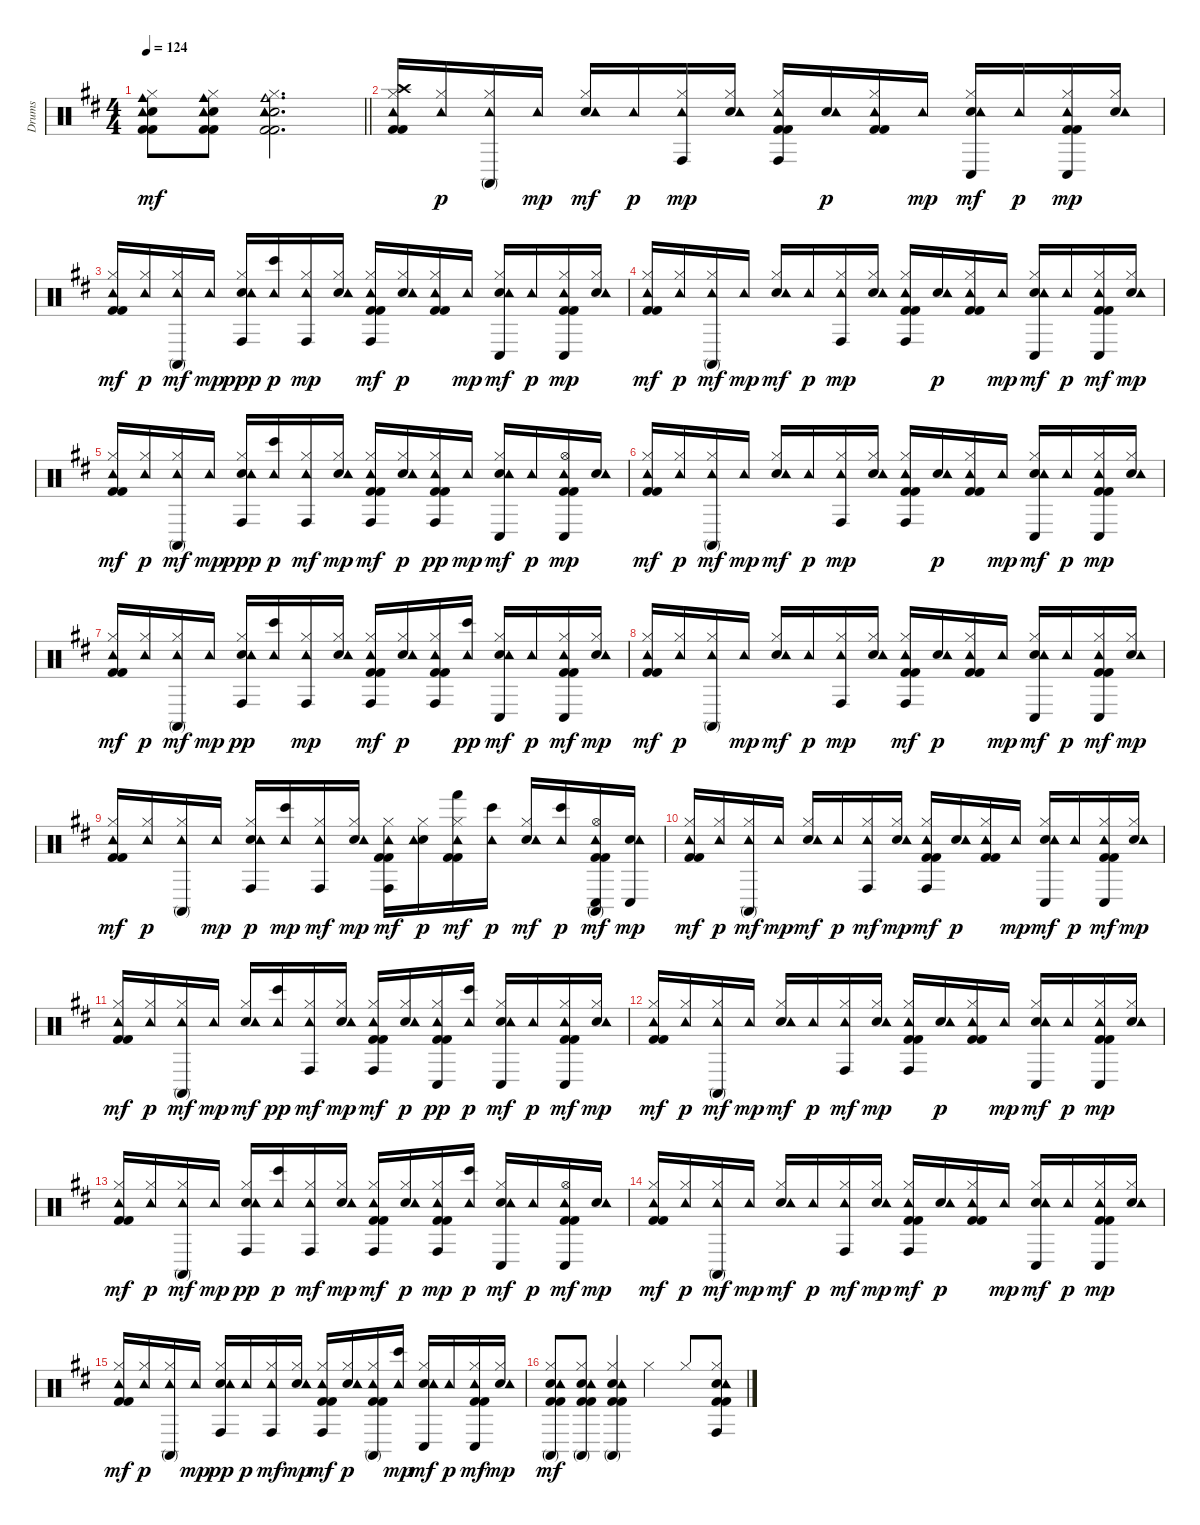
\track ("Drums" "Drums") {instrument percussion}
\staff {score}
\articulation defaults
\ts (4 4)
\tempo 124
\clef neutral
\barLineRight lightlight
\ks d
("Kick (hit) 2" "Kick (hit) 2" "Electric Snare (hit)" "Hi-Hat (closed)" "Tambourine (hit)" "Cowbell medium (hit)").8{dy mf} ("Kick (hit) 2" "Kick (hit) 2" "Electric Snare (hit)" "Hi-Hat (closed)" "Tambourine (hit)" "Cowbell medium (hit)").8 ("Kick (hit) 2" "Kick (hit) 2" "Electric Snare (hit)" "Hi-Hat (closed)" "Tambourine (hit)" "Cowbell medium (hit)").2{d} |
("Kick (hit) 2" "Kick (hit) 2" "Hi-Hat (closed)" "Crash high (hit)" "Tambourine (hit)").16 ("Hi-Hat (closed)" "Tambourine (hit)").16{dy p} ("Hi-Hat (closed)" "Tambourine (hit)" "Conga high (mute)").16 "Tambourine (hit)".16{dy mp} ("Electric Snare (hit)" "Hi-Hat (closed)" "Tambourine (hit)").16{dy mf} "Tambourine (hit)".16{dy p} ("Hi-Hat (closed)" "Tambourine (hit)" "Conga high (hit)").16{dy mp} ("Electric Snare (hit)" "Hi-Hat (closed)" "Tambourine (hit)").16 ("Kick (hit) 2" "Kick (hit) 2" "Hi-Hat (closed)" "Tambourine (hit)" "Conga high (hit)").16 ("Electric Snare (hit)" "Tambourine (hit)").16{dy p} ("Kick (hit) 2" "Kick (hit) 2" "Hi-Hat (closed)" "Tambourine (hit)").16 "Tambourine (hit)".16{dy mp} ("Electric Snare (hit)" "Hi-Hat (closed)" "Tambourine (hit)" "Conga low (hit)").16{dy mf} "Tambourine (hit)".16{dy p} ("Kick (hit) 2" "Kick (hit) 2" "Hi-Hat (closed)" "Tambourine (hit)" "Conga low (hit)").16{dy mp} ("Electric Snare (hit)" "Hi-Hat (closed)" "Tambourine (hit)").16 |
("Kick (hit) 2" "Kick (hit) 2" "Hi-Hat (closed)" "Tambourine (hit)").16{dy mf} ("Hi-Hat (closed)" "Tambourine (hit)").16{dy p} ("Hi-Hat (closed)" "Tambourine (hit)" "Conga high (mute)").16{dy mf} "Tambourine (hit)".16{dy mp} ("Electric Snare (hit)" "Hi-Hat (closed)" "Tambourine (hit)" "Conga high (hit)").16{dy ppp} ("Tambourine (hit)" "Bongo High (hit)").16{dy p} ("Hi-Hat (closed)" "Tambourine (hit)" "Conga high (hit)").16{dy mp} ("Electric Snare (hit)" "Hi-Hat (closed)" "Tambourine (hit)").16 ("Kick (hit) 2" "Kick (hit) 2" "Hi-Hat (closed)" "Tambourine (hit)" "Conga high (hit)").16{dy mf} ("Electric Snare (hit)" "Hi-Hat (closed)" "Tambourine (hit)").16{dy p} ("Kick (hit) 2" "Kick (hit) 2" "Hi-Hat (closed)" "Tambourine (hit)").16 "Tambourine (hit)".16{dy mp} ("Electric Snare (hit)" "Hi-Hat (closed)" "Tambourine (hit)" "Conga low (hit)").16{dy mf} "Tambourine (hit)".16{dy p} ("Kick (hit) 2" "Kick (hit) 2" "Hi-Hat (closed)" "Tambourine (hit)" "Conga low (hit)").16{dy mp} ("Electric Snare (hit)" "Hi-Hat (closed)" "Tambourine (hit)").16 |
("Kick (hit) 2" "Kick (hit) 2" "Hi-Hat (closed)" "Tambourine (hit)").16{dy mf} ("Hi-Hat (closed)" "Tambourine (hit)").16{dy p} ("Hi-Hat (closed)" "Tambourine (hit)" "Conga high (mute)").16{dy mf} "Tambourine (hit)".16{dy mp} ("Electric Snare (hit)" "Hi-Hat (closed)" "Tambourine (hit)").16{dy mf} "Tambourine (hit)".16{dy p} ("Hi-Hat (closed)" "Tambourine (hit)" "Conga high (hit)").16{dy mp} ("Electric Snare (hit)" "Hi-Hat (closed)" "Tambourine (hit)").16 ("Kick (hit) 2" "Kick (hit) 2" "Hi-Hat (closed)" "Tambourine (hit)" "Conga high (hit)").16 ("Electric Snare (hit)" "Tambourine (hit)").16{dy p} ("Kick (hit) 2" "Kick (hit) 2" "Hi-Hat (closed)" "Tambourine (hit)").16 "Tambourine (hit)".16{dy mp} ("Electric Snare (hit)" "Hi-Hat (closed)" "Tambourine (hit)" "Conga low (hit)").16{dy mf} "Tambourine (hit)".16{dy p} ("Kick (hit) 2" "Kick (hit) 2" "Hi-Hat (closed)" "Tambourine (hit)" "Conga low (hit)").16{dy mf} ("Electric Snare (hit)" "Hi-Hat (closed)" "Tambourine (hit)").16{dy mp} |
("Kick (hit) 2" "Kick (hit) 2" "Hi-Hat (closed)" "Tambourine (hit)").16{dy mf} ("Hi-Hat (closed)" "Tambourine (hit)").16{dy p} ("Hi-Hat (closed)" "Tambourine (hit)" "Conga high (mute)").16{dy mf} "Tambourine (hit)".16{dy mp} ("Electric Snare (hit)" "Hi-Hat (closed)" "Tambourine (hit)" "Conga high (hit)").16{dy ppp} ("Tambourine (hit)" "Bongo High (hit)").16{dy p} ("Hi-Hat (closed)" "Tambourine (hit)" "Conga high (hit)").16{dy mf} ("Electric Snare (hit)" "Hi-Hat (closed)" "Tambourine (hit)").16{dy mp} ("Kick (hit) 2" "Kick (hit) 2" "Hi-Hat (closed)" "Tambourine (hit)" "Conga high (hit)").16{dy mf} ("Electric Snare (hit)" "Hi-Hat (closed)" "Tambourine (hit)").16{dy p} ("Kick (hit) 2" "Kick (hit) 2" "Hi-Hat (closed)" "Tambourine (hit)" "Conga high (hit)").16{dy pp} "Tambourine (hit)".16{dy mp} ("Electric Snare (hit)" "Hi-Hat (closed)" "Tambourine (hit)" "Conga low (hit)").16{dy mf} "Tambourine (hit)".16{dy p} ("Kick (hit) 2" "Kick (hit) 2" "Hi-Hat (open)" "Tambourine (hit)" "Conga low (hit)").16{dy mp} ("Electric Snare (hit)" "Tambourine (hit)").16 |
("Kick (hit) 2" "Kick (hit) 2" "Hi-Hat (closed)" "Tambourine (hit)").16{dy mf} ("Hi-Hat (closed)" "Tambourine (hit)").16{dy p} ("Hi-Hat (closed)" "Tambourine (hit)" "Conga high (mute)").16{dy mf} "Tambourine (hit)".16{dy mp} ("Electric Snare (hit)" "Hi-Hat (closed)" "Tambourine (hit)").16{dy mf} "Tambourine (hit)".16{dy p} ("Hi-Hat (closed)" "Tambourine (hit)" "Conga high (hit)").16{dy mp} ("Electric Snare (hit)" "Hi-Hat (closed)" "Tambourine (hit)").16 ("Kick (hit) 2" "Kick (hit) 2" "Hi-Hat (closed)" "Tambourine (hit)" "Conga high (hit)").16 ("Electric Snare (hit)" "Tambourine (hit)").16{dy p} ("Kick (hit) 2" "Kick (hit) 2" "Hi-Hat (closed)" "Tambourine (hit)").16 "Tambourine (hit)".16{dy mp} ("Electric Snare (hit)" "Hi-Hat (closed)" "Tambourine (hit)" "Conga low (hit)").16{dy mf} "Tambourine (hit)".16{dy p} ("Kick (hit) 2" "Kick (hit) 2" "Hi-Hat (closed)" "Tambourine (hit)" "Conga low (hit)").16{dy mp} ("Electric Snare (hit)" "Hi-Hat (closed)" "Tambourine (hit)").16 |
("Kick (hit) 2" "Kick (hit) 2" "Hi-Hat (closed)" "Tambourine (hit)").16{dy mf} ("Hi-Hat (closed)" "Tambourine (hit)").16{dy p} ("Hi-Hat (closed)" "Tambourine (hit)" "Conga high (mute)").16{dy mf} "Tambourine (hit)".16{dy mp} ("Electric Snare (hit)" "Hi-Hat (closed)" "Tambourine (hit)" "Conga high (hit)").16{dy pp} ("Tambourine (hit)" "Bongo High (hit)").16 ("Hi-Hat (closed)" "Tambourine (hit)" "Conga high (hit)").16{dy mp} ("Electric Snare (hit)" "Hi-Hat (closed)" "Tambourine (hit)").16 ("Kick (hit) 2" "Kick (hit) 2" "Hi-Hat (closed)" "Tambourine (hit)" "Conga high (hit)").16{dy mf} ("Electric Snare (hit)" "Hi-Hat (closed)" "Tambourine (hit)").16{dy p} ("Kick (hit) 2" "Kick (hit) 2" "Hi-Hat (closed)" "Tambourine (hit)" "Conga high (hit)").16 ("Tambourine (hit)" "Bongo High (hit)").16{dy pp} ("Electric Snare (hit)" "Hi-Hat (closed)" "Tambourine (hit)" "Conga low (hit)").16{dy mf} "Tambourine (hit)".16{dy p} ("Kick (hit) 2" "Kick (hit) 2" "Hi-Hat (closed)" "Tambourine (hit)" "Conga low (hit)").16{dy mf} ("Electric Snare (hit)" "Hi-Hat (closed)" "Tambourine (hit)").16{dy mp} |
("Kick (hit) 2" "Kick (hit) 2" "Hi-Hat (closed)" "Tambourine (hit)").16{dy mf} ("Hi-Hat (closed)" "Tambourine (hit)").16{dy p} ("Hi-Hat (closed)" "Tambourine (hit)" "Conga high (mute)").16 "Tambourine (hit)".16{dy mp} ("Electric Snare (hit)" "Hi-Hat (closed)" "Tambourine (hit)").16{dy mf} "Tambourine (hit)".16{dy p} ("Hi-Hat (closed)" "Tambourine (hit)" "Conga high (hit)").16{dy mp} ("Electric Snare (hit)" "Hi-Hat (closed)" "Tambourine (hit)").16 ("Kick (hit) 2" "Kick (hit) 2" "Hi-Hat (closed)" "Tambourine (hit)" "Conga high (hit)").16{dy mf} ("Electric Snare (hit)" "Tambourine (hit)").16{dy p} ("Kick (hit) 2" "Kick (hit) 2" "Hi-Hat (closed)" "Tambourine (hit)").16 "Tambourine (hit)".16{dy mp} ("Electric Snare (hit)" "Hi-Hat (closed)" "Tambourine (hit)" "Conga low (hit)").16{dy mf} "Tambourine (hit)".16{dy p} ("Kick (hit) 2" "Kick (hit) 2" "Hi-Hat (closed)" "Tambourine (hit)" "Conga low (hit)").16{dy mf} ("Electric Snare (hit)" "Hi-Hat (closed)" "Tambourine (hit)").16{dy mp} |
("Kick (hit) 2" "Kick (hit) 2" "Hi-Hat (closed)" "Tambourine (hit)").16{dy mf} ("Hi-Hat (closed)" "Tambourine (hit)").16{dy p} ("Hi-Hat (closed)" "Tambourine (hit)" "Conga high (mute)").16 "Tambourine (hit)".16{dy mp} ("Electric Snare (hit)" "Hi-Hat (closed)" "Tambourine (hit)" "Conga high (hit)").16{dy p} ("Tambourine (hit)" "Bongo High (hit)").16{dy mp} ("Hi-Hat (closed)" "Tambourine (hit)" "Conga high (hit)").16{dy mf} ("Electric Snare (hit)" "Hi-Hat (closed)" "Tambourine (hit)").16{dy mp} ("Kick (hit) 2" "Kick (hit) 2" "Hi-Hat (closed)" "Tambourine (hit)" "Conga high (hit)").16{dy mf} ("Electric Snare (hit)" "Hi-Hat (closed)" "Tambourine (hit)").16{dy p} ("Kick (hit) 2" "Kick (hit) 2" "Hi-Hat (closed)" "Tambourine (hit)" "Hand (hit)").16{dy mf} ("Tambourine (hit)" "Bongo High (hit)").16{dy p} ("Electric Snare (hit)" "Hi-Hat (closed)" "Tambourine (hit)").16{dy mf} ("Tambourine (hit)" "Bongo High (hit)").16{dy p} ("Kick (hit) 2" "Kick (hit) 2" "Hi-Hat (open)" "Tambourine (hit)" "Conga high (mute)" "Conga low (hit)").16{dy mf} ("Electric Snare (hit)" "Tambourine (hit)" "Conga low (hit)").16{dy mp} |
("Kick (hit) 2" "Kick (hit) 2" "Hi-Hat (closed)" "Tambourine (hit)").16{dy mf} ("Hi-Hat (closed)" "Tambourine (hit)").16{dy p} ("Hi-Hat (closed)" "Tambourine (hit)" "Conga high (mute)").16{dy mf} "Tambourine (hit)".16{dy mp} ("Electric Snare (hit)" "Hi-Hat (closed)" "Tambourine (hit)").16{dy mf} "Tambourine (hit)".16{dy p} ("Hi-Hat (closed)" "Tambourine (hit)" "Conga high (hit)").16{dy mf} ("Electric Snare (hit)" "Hi-Hat (closed)" "Tambourine (hit)").16{dy mp} ("Kick (hit) 2" "Kick (hit) 2" "Hi-Hat (closed)" "Tambourine (hit)" "Conga high (hit)").16{dy mf} ("Electric Snare (hit)" "Tambourine (hit)").16{dy p} ("Kick (hit) 2" "Kick (hit) 2" "Hi-Hat (closed)" "Tambourine (hit)").16 "Tambourine (hit)".16{dy mp} ("Electric Snare (hit)" "Hi-Hat (closed)" "Tambourine (hit)" "Conga low (hit)").16{dy mf} "Tambourine (hit)".16{dy p} ("Kick (hit) 2" "Kick (hit) 2" "Hi-Hat (closed)" "Tambourine (hit)" "Conga low (hit)").16{dy mf} ("Electric Snare (hit)" "Hi-Hat (closed)" "Tambourine (hit)").16{dy mp} |
("Kick (hit) 2" "Kick (hit) 2" "Hi-Hat (closed)" "Tambourine (hit)").16{dy mf} ("Hi-Hat (closed)" "Tambourine (hit)").16{dy p} ("Hi-Hat (closed)" "Tambourine (hit)" "Conga high (mute)").16{dy mf} "Tambourine (hit)".16{dy mp} ("Electric Snare (hit)" "Hi-Hat (closed)" "Tambourine (hit)").16{dy mf} ("Tambourine (hit)" "Bongo High (hit)").16{dy pp} ("Hi-Hat (closed)" "Tambourine (hit)" "Conga high (hit)").16{dy mf} ("Electric Snare (hit)" "Hi-Hat (closed)" "Tambourine (hit)").16{dy mp} ("Kick (hit) 2" "Kick (hit) 2" "Hi-Hat (closed)" "Tambourine (hit)" "Conga high (hit)").16{dy mf} ("Electric Snare (hit)" "Hi-Hat (closed)" "Tambourine (hit)").16{dy p} ("Kick (hit) 2" "Kick (hit) 2" "Hi-Hat (closed)" "Tambourine (hit)" "Conga low (hit)").16{dy pp} ("Tambourine (hit)" "Bongo High (hit)").16{dy p} ("Electric Snare (hit)" "Hi-Hat (closed)" "Tambourine (hit)" "Conga low (hit)").16{dy mf} "Tambourine (hit)".16{dy p} ("Kick (hit) 2" "Kick (hit) 2" "Hi-Hat (closed)" "Tambourine (hit)" "Conga low (hit)").16{dy mf} ("Electric Snare (hit)" "Hi-Hat (closed)" "Tambourine (hit)").16{dy mp} |
("Kick (hit) 2" "Kick (hit) 2" "Hi-Hat (closed)" "Tambourine (hit)").16{dy mf} ("Hi-Hat (closed)" "Tambourine (hit)").16{dy p} ("Hi-Hat (closed)" "Tambourine (hit)" "Conga high (mute)").16{dy mf} "Tambourine (hit)".16{dy mp} ("Electric Snare (hit)" "Hi-Hat (closed)" "Tambourine (hit)").16{dy mf} "Tambourine (hit)".16{dy p} ("Hi-Hat (closed)" "Tambourine (hit)" "Conga high (hit)").16{dy mf} ("Electric Snare (hit)" "Hi-Hat (closed)" "Tambourine (hit)").16{dy mp} ("Kick (hit) 2" "Kick (hit) 2" "Hi-Hat (closed)" "Tambourine (hit)" "Conga high (hit)").16 ("Electric Snare (hit)" "Tambourine (hit)").16{dy p} ("Kick (hit) 2" "Kick (hit) 2" "Hi-Hat (closed)" "Tambourine (hit)").16 "Tambourine (hit)".16{dy mp} ("Electric Snare (hit)" "Hi-Hat (closed)" "Tambourine (hit)" "Conga low (hit)").16{dy mf} "Tambourine (hit)".16{dy p} ("Kick (hit) 2" "Kick (hit) 2" "Hi-Hat (closed)" "Tambourine (hit)" "Conga low (hit)").16{dy mp} ("Electric Snare (hit)" "Hi-Hat (closed)" "Tambourine (hit)").16 |
("Kick (hit) 2" "Kick (hit) 2" "Hi-Hat (closed)" "Tambourine (hit)").16{dy mf} ("Hi-Hat (closed)" "Tambourine (hit)").16{dy p} ("Hi-Hat (closed)" "Tambourine (hit)" "Conga high (mute)").16{dy mf} "Tambourine (hit)".16{dy mp} ("Electric Snare (hit)" "Hi-Hat (closed)" "Tambourine (hit)" "Conga high (hit)").16{dy pp} ("Tambourine (hit)" "Bongo High (hit)").16{dy p} ("Hi-Hat (closed)" "Tambourine (hit)" "Conga high (hit)").16{dy mf} ("Electric Snare (hit)" "Hi-Hat (closed)" "Tambourine (hit)").16{dy mp} ("Kick (hit) 2" "Kick (hit) 2" "Hi-Hat (closed)" "Tambourine (hit)" "Conga high (hit)").16{dy mf} ("Electric Snare (hit)" "Hi-Hat (closed)" "Tambourine (hit)").16{dy p} ("Kick (hit) 2" "Kick (hit) 2" "Hi-Hat (closed)" "Tambourine (hit)" "Conga high (hit)").16{dy mp} ("Tambourine (hit)" "Bongo High (hit)").16{dy p} ("Electric Snare (hit)" "Hi-Hat (closed)" "Tambourine (hit)" "Conga low (hit)").16{dy mf} "Tambourine (hit)".16{dy p} ("Kick (hit) 2" "Kick (hit) 2" "Hi-Hat (open)" "Tambourine (hit)" "Conga low (hit)").16{dy mf} ("Electric Snare (hit)" "Tambourine (hit)").16{dy mp} |
("Kick (hit) 2" "Kick (hit) 2" "Hi-Hat (closed)" "Tambourine (hit)").16{dy mf} ("Hi-Hat (closed)" "Tambourine (hit)").16{dy p} ("Hi-Hat (closed)" "Tambourine (hit)" "Conga high (mute)").16{dy mf} "Tambourine (hit)".16{dy mp} ("Electric Snare (hit)" "Hi-Hat (closed)" "Tambourine (hit)").16{dy mf} "Tambourine (hit)".16{dy p} ("Hi-Hat (closed)" "Tambourine (hit)" "Conga high (hit)").16{dy mf} ("Electric Snare (hit)" "Hi-Hat (closed)" "Tambourine (hit)").16{dy mp} ("Kick (hit) 2" "Kick (hit) 2" "Hi-Hat (closed)" "Tambourine (hit)" "Conga high (hit)").16{dy mf} ("Electric Snare (hit)" "Tambourine (hit)").16{dy p} ("Kick (hit) 2" "Kick (hit) 2" "Hi-Hat (closed)" "Tambourine (hit)").16 "Tambourine (hit)".16{dy mp} ("Electric Snare (hit)" "Hi-Hat (closed)" "Tambourine (hit)" "Conga low (hit)").16{dy mf} "Tambourine (hit)".16{dy p} ("Kick (hit) 2" "Kick (hit) 2" "Hi-Hat (closed)" "Tambourine (hit)" "Conga low (hit)").16{dy mp} ("Electric Snare (hit)" "Hi-Hat (closed)" "Tambourine (hit)").16 |
("Kick (hit) 2" "Kick (hit) 2" "Hi-Hat (closed)" "Tambourine (hit)").16{dy mf} ("Hi-Hat (closed)" "Tambourine (hit)").16{dy p} ("Hi-Hat (closed)" "Tambourine (hit)" "Conga high (mute)").16 "Tambourine (hit)".16{dy mp} ("Electric Snare (hit)" "Hi-Hat (closed)" "Tambourine (hit)" "Conga high (hit)").16{dy pp} "Tambourine (hit)".16{dy p} ("Hi-Hat (closed)" "Tambourine (hit)" "Conga high (hit)").16{dy mf} ("Electric Snare (hit)" "Hi-Hat (closed)" "Tambourine (hit)").16{dy mp} ("Kick (hit) 2" "Kick (hit) 2" "Hi-Hat (closed)" "Tambourine (hit)" "Conga high (hit)").16{dy mf} ("Electric Snare (hit)" "Hi-Hat (closed)" "Tambourine (hit)").16{dy p} ("Kick (hit) 2" "Kick (hit) 2" "Hi-Hat (closed)" "Tambourine (hit)" "Conga high (mute)").16 ("Tambourine (hit)" "Bongo High (hit)").16{dy mp} ("Electric Snare (hit)" "Hi-Hat (closed)" "Tambourine (hit)" "Conga low (hit)").16{dy mf} "Tambourine (hit)".16{dy p} ("Kick (hit) 2" "Kick (hit) 2" "Hi-Hat (closed)" "Tambourine (hit)" "Conga low (hit)").16{dy mf} ("Electric Snare (hit)" "Hi-Hat (closed)" "Tambourine (hit)").16{dy mp} |
("Kick (hit) 2" "Kick (hit) 2" "Electric Snare (hit)" "Hi-Hat (closed)" "Tambourine (hit)" "Conga high (mute)").8{dy mf} ("Kick (hit) 2" "Kick (hit) 2" "Electric Snare (hit)" "Hi-Hat (closed)" "Tambourine (hit)" "Conga high (mute)").8 ("Kick (hit) 2" "Kick (hit) 2" "Electric Snare (hit)" "Hi-Hat (closed)" "Tambourine (hit)" "Conga high (mute)").4 "Hi-Hat (closed)".4 "Hi-Hat (closed)".8 ("Kick (hit) 2" "Kick (hit) 2" "Electric Snare (hit)" "Hi-Hat (closed)" "Tambourine (hit)" "Conga high (hit)").8
